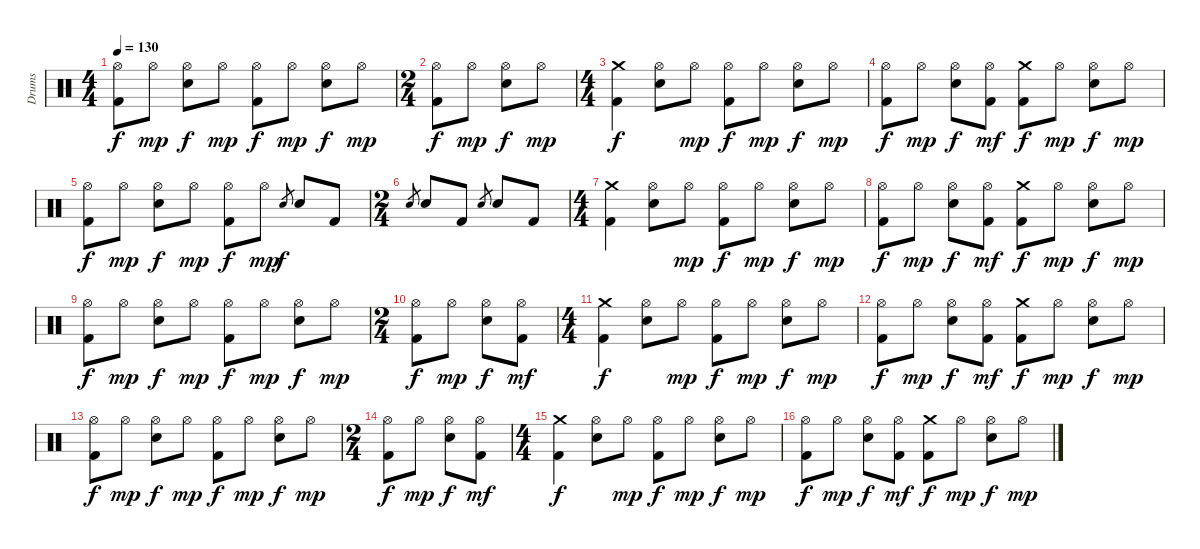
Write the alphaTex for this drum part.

\track ("Drums" "Drums") {instrument percussion}
\staff {score}
\articulation defaults
\ts (4 4)
\tempo 130
\clef neutral
\ks c
("Hi-Hat (open)" "Kick (hit) 2").8{dy f} "Hi-Hat (open)".8{dy mp} ("Hi-Hat (open)" "Electric Snare (hit)").8{dy f} "Hi-Hat (open)".8{dy mp} ("Hi-Hat (open)" "Kick (hit) 2").8{dy f} "Hi-Hat (open)".8{dy mp} ("Hi-Hat (open)" "Electric Snare (hit)").8{dy f} "Hi-Hat (open)".8{dy mp} |
\ts (2 4)
("Hi-Hat (open)" "Kick (hit) 2").8{dy f} "Hi-Hat (open)".8{dy mp} ("Hi-Hat (open)" "Electric Snare (hit)").8{dy f} "Hi-Hat (open)".8{dy mp} |
\ts (4 4)
("Crash medium (hit)" "Kick (hit) 2").4{dy f} ("Hi-Hat (open)" "Electric Snare (hit)").8 "Hi-Hat (open)".8{dy mp} ("Hi-Hat (open)" "Kick (hit) 2").8{dy f} "Hi-Hat (open)".8{dy mp} ("Hi-Hat (open)" "Electric Snare (hit)").8{dy f} "Hi-Hat (open)".8{dy mp} |
("Hi-Hat (open)" "Kick (hit) 2").8{dy f} "Hi-Hat (open)".8{dy mp} ("Hi-Hat (open)" "Electric Snare (hit)").8{dy f} ("Hi-Hat (open)" "Kick (hit) 2").8{dy mf} ("Crash medium (hit)" "Kick (hit) 2").8{dy f} "Hi-Hat (open)".8{dy mp} ("Hi-Hat (open)" "Electric Snare (hit)").8{dy f} "Hi-Hat (open)".8{dy mp} |
("Hi-Hat (open)" "Kick (hit) 2").8{dy f} "Hi-Hat (open)".8{dy mp} ("Hi-Hat (open)" "Electric Snare (hit)").8{dy f} "Hi-Hat (open)".8{dy mp} ("Hi-Hat (open)" "Kick (hit) 2").8{dy f} "Hi-Hat (open)".8{dy mp} "Electric Snare (hit)".8{gr dy f} "Electric Snare (hit)".8 "Kick (hit) 2".8 |
\ts (2 4)
"Electric Snare (hit)".8{gr} "Electric Snare (hit)".8 "Kick (hit) 2".8 "Electric Snare (hit)".8{gr} "Electric Snare (hit)".8 "Kick (hit) 2".8 |
\ts (4 4)
("Crash medium (hit)" "Kick (hit) 2").4 ("Hi-Hat (open)" "Electric Snare (hit)").8 "Hi-Hat (open)".8{dy mp} ("Hi-Hat (open)" "Kick (hit) 2").8{dy f} "Hi-Hat (open)".8{dy mp} ("Hi-Hat (open)" "Electric Snare (hit)").8{dy f} "Hi-Hat (open)".8{dy mp} |
("Hi-Hat (open)" "Kick (hit) 2").8{dy f} "Hi-Hat (open)".8{dy mp} ("Hi-Hat (open)" "Electric Snare (hit)").8{dy f} ("Hi-Hat (open)" "Kick (hit) 2").8{dy mf} ("Crash medium (hit)" "Kick (hit) 2").8{dy f} "Hi-Hat (open)".8{dy mp} ("Hi-Hat (open)" "Electric Snare (hit)").8{dy f} "Hi-Hat (open)".8{dy mp} |
("Hi-Hat (open)" "Kick (hit) 2").8{dy f} "Hi-Hat (open)".8{dy mp} ("Hi-Hat (open)" "Electric Snare (hit)").8{dy f} "Hi-Hat (open)".8{dy mp} ("Hi-Hat (open)" "Kick (hit) 2").8{dy f} "Hi-Hat (open)".8{dy mp} ("Hi-Hat (open)" "Electric Snare (hit)").8{dy f} "Hi-Hat (open)".8{dy mp} |
\ts (2 4)
("Hi-Hat (open)" "Kick (hit) 2").8{dy f} "Hi-Hat (open)".8{dy mp} ("Hi-Hat (open)" "Electric Snare (hit)").8{dy f} ("Hi-Hat (open)" "Kick (hit) 2").8{dy mf} |
\ts (4 4)
("Crash medium (hit)" "Kick (hit) 2").4{dy f} ("Hi-Hat (open)" "Electric Snare (hit)").8 "Hi-Hat (open)".8{dy mp} ("Hi-Hat (open)" "Kick (hit) 2").8{dy f} "Hi-Hat (open)".8{dy mp} ("Hi-Hat (open)" "Electric Snare (hit)").8{dy f} "Hi-Hat (open)".8{dy mp} |
("Hi-Hat (open)" "Kick (hit) 2").8{dy f} "Hi-Hat (open)".8{dy mp} ("Hi-Hat (open)" "Electric Snare (hit)").8{dy f} ("Hi-Hat (open)" "Kick (hit) 2").8{dy mf} ("Crash medium (hit)" "Kick (hit) 2").8{dy f} "Hi-Hat (open)".8{dy mp} ("Hi-Hat (open)" "Electric Snare (hit)").8{dy f} "Hi-Hat (open)".8{dy mp} |
("Hi-Hat (open)" "Kick (hit) 2").8{dy f} "Hi-Hat (open)".8{dy mp} ("Hi-Hat (open)" "Electric Snare (hit)").8{dy f} "Hi-Hat (open)".8{dy mp} ("Hi-Hat (open)" "Kick (hit) 2").8{dy f} "Hi-Hat (open)".8{dy mp} ("Hi-Hat (open)" "Electric Snare (hit)").8{dy f} "Hi-Hat (open)".8{dy mp} |
\ts (2 4)
("Hi-Hat (open)" "Kick (hit) 2").8{dy f} "Hi-Hat (open)".8{dy mp} ("Hi-Hat (open)" "Electric Snare (hit)").8{dy f} ("Hi-Hat (open)" "Kick (hit) 2").8{dy mf} |
\ts (4 4)
("Crash medium (hit)" "Kick (hit) 2").4{dy f} ("Hi-Hat (open)" "Electric Snare (hit)").8 "Hi-Hat (open)".8{dy mp} ("Hi-Hat (open)" "Kick (hit) 2").8{dy f} "Hi-Hat (open)".8{dy mp} ("Hi-Hat (open)" "Electric Snare (hit)").8{dy f} "Hi-Hat (open)".8{dy mp} |
("Hi-Hat (open)" "Kick (hit) 2").8{dy f} "Hi-Hat (open)".8{dy mp} ("Hi-Hat (open)" "Electric Snare (hit)").8{dy f} ("Hi-Hat (open)" "Kick (hit) 2").8{dy mf} ("Crash medium (hit)" "Kick (hit) 2").8{dy f} "Hi-Hat (open)".8{dy mp} ("Hi-Hat (open)" "Electric Snare (hit)").8{dy f} "Hi-Hat (open)".8{dy mp}
